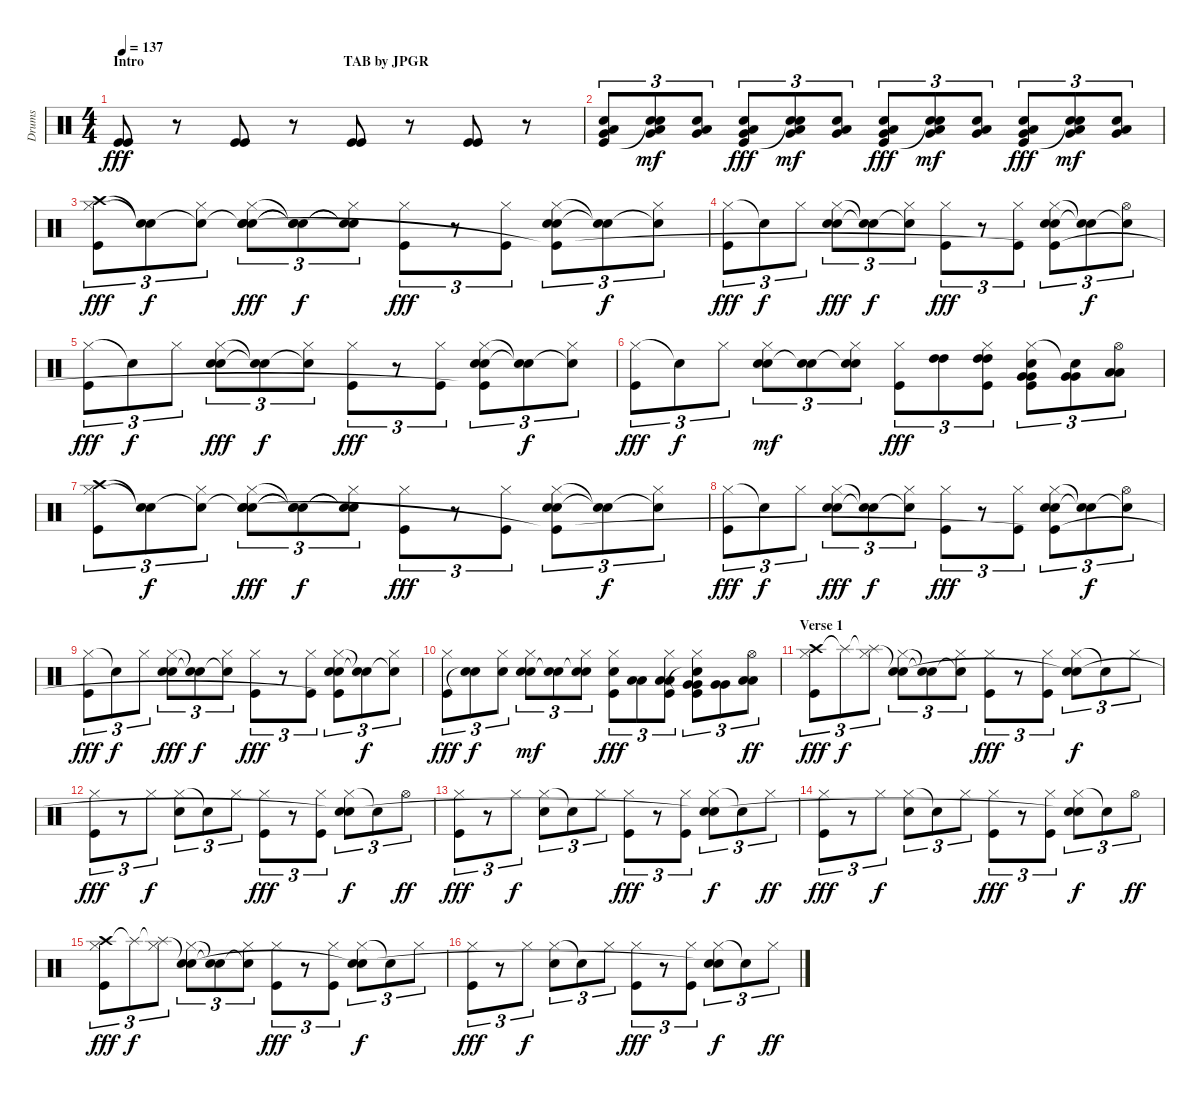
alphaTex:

\track ("Drums" "Drums") {instrument percussion}
\staff {score}
\articulation defaults
\ts (4 4)
\section ("" "Intro                                                         TAB by JPGR        ")
\tempo 137
\clef neutral
\ks c
("Kick (hit)" "Kick (hit)").8{dy fff} r.8 ("Kick (hit)" "Kick (hit)").8 r.8 ("Kick (hit)" "Kick (hit)").8 r.8 ("Kick (hit)" "Kick (hit)").8 r.8 |
("Very Low Tom (hit)" "Low Floor Tom (hit)" "Electric Snare (hit)" "Kick (hit)").8{tu (3 2)} ("Very Low Tom (hit)" "Low Floor Tom (hit)" "Electric Snare (hit)" "Snare (hit)"{t}).8{tu (3 2) dy mf} ("Very Low Tom (hit)" "Low Floor Tom (hit)" "Electric Snare (hit)").8{tu (3 2)} ("Very Low Tom (hit)" "Low Floor Tom (hit)" "Electric Snare (hit)" "Kick (hit)").8{tu (3 2) dy fff} ("Very Low Tom (hit)" "Low Floor Tom (hit)" "Electric Snare (hit)" "Snare (hit)"{t}).8{tu (3 2) dy mf} ("Very Low Tom (hit)" "Low Floor Tom (hit)" "Electric Snare (hit)").8{tu (3 2)} ("Very Low Tom (hit)" "Low Floor Tom (hit)" "Electric Snare (hit)" "Kick (hit)").8{tu (3 2) dy fff} ("Very Low Tom (hit)" "Low Floor Tom (hit)" "Electric Snare (hit)" "Snare (hit)"{t}).8{tu (3 2) dy mf} ("Very Low Tom (hit)" "Low Floor Tom (hit)" "Electric Snare (hit)").8{tu (3 2)} ("Very Low Tom (hit)" "Low Floor Tom (hit)" "Electric Snare (hit)" "Kick (hit)").8{tu (3 2) dy fff} ("Very Low Tom (hit)" "Low Floor Tom (hit)" "Electric Snare (hit)" "Snare (hit)"{t}).8{tu (3 2) dy mf} ("Very Low Tom (hit)" "Low Floor Tom (hit)" "Electric Snare (hit)").8{tu (3 2)} |
("Crash high (hit)" "Hi-Hat (closed)" "Kick (hit)").8{tu (3 2) dy fff} ("Snare (hit)"{t} "Snare (hit)"{t}).8{tu (3 2) dy f} ("Snare (hit)"{t} "Hi-Hat (closed)").8{tu (3 2)} ("Snare (hit)"{t} "Hand Clap (hit)" "Hi-Hat (closed)" "Electric Snare (hit)").8{tu (3 2) dy fff} ("Snare (hit)"{t} "Snare (hit)"{t} "Snare (hit)"{t}).8{tu (3 2) dy f} ("Snare (hit)"{t} "Snare (hit)"{t} "Hi-Hat (closed)").8{tu (3 2)} ("Hi-Hat (closed)" "Kick (hit)").8{tu (3 2) dy fff} r.8{tu (3 2)} ("Hi-Hat (closed)" "Kick (hit)").8{tu (3 2)} ("Hand Clap (hit)" "Hi-Hat (closed)" "Electric Snare (hit)" "Kick (hit)"{t}).8{tu (3 2)} ("Snare (hit)"{t} "Snare (hit)"{t}).8{tu (3 2) dy f} ("Snare (hit)"{t} "Hi-Hat (closed)").8{tu (3 2)} |
("Hi-Hat (closed)" "Kick (hit)").8{tu (3 2) dy fff} "Snare (hit)"{t}.8{tu (3 2) dy f} "Hi-Hat (closed)".8{tu (3 2)} ("Hand Clap (hit)" "Hi-Hat (closed)" "Electric Snare (hit)").8{tu (3 2) dy fff} ("Snare (hit)"{t} "Snare (hit)"{t}).8{tu (3 2) dy f} ("Snare (hit)"{t} "Hi-Hat (closed)").8{tu (3 2)} ("Hi-Hat (closed)" "Kick (hit)").8{tu (3 2) dy fff} r.8{tu (3 2)} ("Hi-Hat (closed)" "Kick (hit)").8{tu (3 2)} ("Hand Clap (hit)" "Hi-Hat (closed)" "Electric Snare (hit)" "Kick (hit)"{t}).8{tu (3 2)} ("Snare (hit)"{t} "Snare (hit)"{t}).8{tu (3 2) dy f} ("Snare (hit)"{t} "Hi-Hat (open)").8{tu (3 2)} |
("Hi-Hat (closed)" "Kick (hit)").8{tu (3 2) dy fff} "Snare (hit)"{t}.8{tu (3 2) dy f} "Hi-Hat (closed)".8{tu (3 2)} ("Hand Clap (hit)" "Hi-Hat (closed)" "Electric Snare (hit)").8{tu (3 2) dy fff} ("Snare (hit)"{t} "Snare (hit)"{t}).8{tu (3 2) dy f} ("Snare (hit)"{t} "Hi-Hat (closed)").8{tu (3 2)} ("Hi-Hat (closed)" "Kick (hit)").8{tu (3 2) dy fff} r.8{tu (3 2)} ("Hi-Hat (closed)" "Kick (hit)").8{tu (3 2)} ("Hand Clap (hit)" "Hi-Hat (closed)" "Electric Snare (hit)" "Kick (hit)"{t}).8{tu (3 2)} ("Snare (hit)"{t} "Snare (hit)"{t}).8{tu (3 2) dy f} ("Snare (hit)"{t} "Hi-Hat (closed)").8{tu (3 2)} |
("Hi-Hat (closed)" "Kick (hit)").8{tu (3 2) dy fff} "Snare (hit)"{t}.8{tu (3 2) dy f} "Hi-Hat (closed)".8{tu (3 2)} ("Hand Clap (hit)" "Hi-Hat (closed)" "Electric Snare (hit)").8{tu (3 2) dy mf} ("Snare (hit)"{t} "Electric Snare (hit)").8{tu (3 2)} ("Snare (hit)"{t} "Hi-Hat (closed)" "Electric Snare (hit)").8{tu (3 2)} ("Hi-Hat (closed)" "Kick (hit)").8{tu (3 2) dy fff} ("High Tom (hit)" "High Tom (hit)").8{tu (3 2)} ("High Tom (hit)" "High Tom (hit)" "Hi-Hat (closed)" "Kick (hit)").8{tu (3 2)} ("Very Low Tom (hit)" "Very Low Tom (hit)" "Hi-Hat (closed)" "Electric Snare (hit)" "Kick (hit)").8{tu (3 2)} ("Very Low Tom (hit)" "Very Low Tom (hit)" "Snare (hit)"{t}).8{tu (3 2)} ("Low Floor Tom (hit)" "Low Floor Tom (hit)" "Hi-Hat (open)").8{tu (3 2)} |
("Crash high (hit)" "Hi-Hat (closed)" "Kick (hit)").8{tu (3 2)} ("Snare (hit)"{t} "Snare (hit)"{t}).8{tu (3 2) dy f} ("Snare (hit)"{t} "Hi-Hat (closed)").8{tu (3 2)} ("Snare (hit)"{t} "Hand Clap (hit)" "Hi-Hat (closed)" "Electric Snare (hit)").8{tu (3 2) dy fff} ("Snare (hit)"{t} "Snare (hit)"{t} "Snare (hit)"{t}).8{tu (3 2) dy f} ("Snare (hit)"{t} "Snare (hit)"{t} "Hi-Hat (closed)").8{tu (3 2)} ("Hi-Hat (closed)" "Kick (hit)").8{tu (3 2) dy fff} r.8{tu (3 2)} ("Hi-Hat (closed)" "Kick (hit)").8{tu (3 2)} ("Hand Clap (hit)" "Hi-Hat (closed)" "Electric Snare (hit)" "Kick (hit)"{t}).8{tu (3 2)} ("Snare (hit)"{t} "Snare (hit)"{t}).8{tu (3 2) dy f} ("Snare (hit)"{t} "Hi-Hat (closed)").8{tu (3 2)} |
("Hi-Hat (closed)" "Kick (hit)").8{tu (3 2) dy fff} "Snare (hit)"{t}.8{tu (3 2) dy f} "Hi-Hat (closed)".8{tu (3 2)} ("Hand Clap (hit)" "Hi-Hat (closed)" "Electric Snare (hit)").8{tu (3 2) dy fff} ("Snare (hit)"{t} "Snare (hit)"{t}).8{tu (3 2) dy f} ("Snare (hit)"{t} "Hi-Hat (closed)").8{tu (3 2)} ("Hi-Hat (closed)" "Kick (hit)").8{tu (3 2) dy fff} r.8{tu (3 2)} ("Hi-Hat (closed)" "Kick (hit)").8{tu (3 2)} ("Hand Clap (hit)" "Hi-Hat (closed)" "Electric Snare (hit)" "Kick (hit)"{t}).8{tu (3 2)} ("Snare (hit)"{t} "Snare (hit)"{t}).8{tu (3 2) dy f} ("Snare (hit)"{t} "Hi-Hat (open)").8{tu (3 2)} |
("Hi-Hat (closed)" "Kick (hit)").8{tu (3 2) dy fff} "Snare (hit)"{t}.8{tu (3 2) dy f} "Hi-Hat (closed)".8{tu (3 2)} ("Hand Clap (hit)" "Hi-Hat (closed)" "Electric Snare (hit)").8{tu (3 2) dy fff} ("Snare (hit)"{t} "Snare (hit)"{t}).8{tu (3 2) dy f} ("Snare (hit)"{t} "Hi-Hat (closed)").8{tu (3 2)} ("Hi-Hat (closed)" "Kick (hit)").8{tu (3 2) dy fff} r.8{tu (3 2)} ("Hi-Hat (closed)" "Kick (hit)").8{tu (3 2)} ("Hand Clap (hit)" "Hi-Hat (closed)" "Electric Snare (hit)" "Kick (hit)"{t}).8{tu (3 2)} ("Snare (hit)"{t} "Snare (hit)"{t}).8{tu (3 2) dy f} ("Snare (hit)"{t} "Hi-Hat (closed)").8{tu (3 2)} |
("Hi-Hat (closed)" "Kick (hit)").8{tu (3 2) dy fff} ("Electric Snare (hit)" "Snare (hit)"{t}).8{tu (3 2) dy f} ("Hi-Hat (closed)" "Electric Snare (hit)").8{tu (3 2)} ("Hand Clap (hit)" "Hi-Hat (closed)" "Electric Snare (hit)").8{tu (3 2) dy mf} ("Snare (hit)"{t} "Electric Snare (hit)").8{tu (3 2)} ("Snare (hit)"{t} "Hi-Hat (closed)" "Electric Snare (hit)").8{tu (3 2)} ("Hi-Hat (closed)" "Electric Snare (hit)" "Kick (hit)").8{tu (3 2) dy fff} ("Low Tom (hit)" "Low Tom (hit)").8{tu (3 2)} ("Low Tom (hit)" "Hi-Hat (closed)" "Low Tom (hit)" "Kick (hit)").8{tu (3 2)} ("Very Low Tom (hit)" "Very Low Tom (hit)" "Hi-Hat (closed)" "Electric Snare (hit)"{t} "Kick (hit)").8{tu (3 2)} ("Very Low Tom (hit)" "Very Low Tom (hit)").8{tu (3 2)} ("Low Floor Tom (hit)" "Low Floor Tom (hit)" "Hi-Hat (open)").8{tu (3 2) dy ff} |
\section ("" "Verse 1")
("Crash high (hit)" "Hi-Hat (closed)" "Kick (hit)").8{tu (3 2) dy fff} "Splash (hit)"{t}.8{tu (3 2) dy f} ("Splash (hit)"{t} "Hi-Hat (closed)").8{tu (3 2)} ("Snare (hit)"{t} "Hi-Hat (closed)" "Electric Snare (hit)").8{tu (3 2)} ("Snare (hit)"{t} "Electric Snare (hit)"{t}).8{tu (3 2)} ("Snare (hit)"{t} "Hi-Hat (closed)").8{tu (3 2)} ("Hi-Hat (closed)" "Kick (hit)").8{tu (3 2) dy fff} r.8{tu (3 2)} ("Hi-Hat (closed)" "Kick (hit)").8{tu (3 2)} ("Hi-Hat (closed)" "Electric Snare (hit)" "Snare (hit)"{t}).8{tu (3 2) dy f} "Snare (hit)"{t}.8{tu (3 2)} "Hi-Hat (closed)".8{tu (3 2)} |
("Hi-Hat (closed)" "Kick (hit)").8{tu (3 2) dy fff} r.8{tu (3 2)} "Hi-Hat (closed)".8{tu (3 2) dy f} ("Hi-Hat (closed)" "Electric Snare (hit)").8{tu (3 2)} "Electric Snare (hit)"{t}.8{tu (3 2)} "Hi-Hat (closed)".8{tu (3 2)} ("Hi-Hat (closed)" "Kick (hit)").8{tu (3 2) dy fff} r.8{tu (3 2)} ("Hi-Hat (closed)" "Kick (hit)").8{tu (3 2)} ("Hi-Hat (closed)" "Electric Snare (hit)" "Snare (hit)"{t}).8{tu (3 2) dy f} "Snare (hit)"{t}.8{tu (3 2)} "Hi-Hat (open)".8{tu (3 2) dy ff} |
("Hi-Hat (closed)" "Kick (hit)").8{tu (3 2) dy fff} r.8{tu (3 2)} "Hi-Hat (closed)".8{tu (3 2) dy f} ("Hi-Hat (closed)" "Electric Snare (hit)").8{tu (3 2)} "Electric Snare (hit)"{t}.8{tu (3 2)} "Hi-Hat (closed)".8{tu (3 2)} ("Hi-Hat (closed)" "Kick (hit)").8{tu (3 2) dy fff} r.8{tu (3 2)} ("Hi-Hat (closed)" "Kick (hit)").8{tu (3 2)} ("Hi-Hat (closed)" "Electric Snare (hit)" "Snare (hit)"{t}).8{tu (3 2) dy f} "Snare (hit)"{t}.8{tu (3 2)} "Hi-Hat (closed)".8{tu (3 2) dy ff} |
("Hi-Hat (closed)" "Kick (hit)").8{tu (3 2) dy fff} r.8{tu (3 2)} "Hi-Hat (closed)".8{tu (3 2) dy f} ("Hi-Hat (closed)" "Electric Snare (hit)").8{tu (3 2)} "Electric Snare (hit)"{t}.8{tu (3 2)} "Hi-Hat (closed)".8{tu (3 2)} ("Hi-Hat (closed)" "Kick (hit)").8{tu (3 2) dy fff} r.8{tu (3 2)} ("Hi-Hat (closed)" "Kick (hit)").8{tu (3 2)} ("Hi-Hat (closed)" "Electric Snare (hit)" "Snare (hit)"{t}).8{tu (3 2) dy f} "Snare (hit)"{t}.8{tu (3 2)} "Hi-Hat (open)".8{tu (3 2) dy ff} |
("Crash high (hit)" "Hi-Hat (closed)" "Kick (hit)").8{tu (3 2) dy fff} "Splash (hit)"{t}.8{tu (3 2) dy f} ("Splash (hit)"{t} "Hi-Hat (closed)").8{tu (3 2)} ("Snare (hit)"{t} "Hi-Hat (closed)" "Electric Snare (hit)").8{tu (3 2)} ("Snare (hit)"{t} "Electric Snare (hit)"{t}).8{tu (3 2)} ("Snare (hit)"{t} "Hi-Hat (closed)").8{tu (3 2)} ("Hi-Hat (closed)" "Kick (hit)").8{tu (3 2) dy fff} r.8{tu (3 2)} ("Hi-Hat (closed)" "Kick (hit)").8{tu (3 2)} ("Hi-Hat (closed)" "Electric Snare (hit)" "Snare (hit)"{t}).8{tu (3 2) dy f} "Snare (hit)"{t}.8{tu (3 2)} "Hi-Hat (closed)".8{tu (3 2)} |
("Hi-Hat (closed)" "Kick (hit)").8{tu (3 2) dy fff} r.8{tu (3 2)} "Hi-Hat (closed)".8{tu (3 2) dy f} ("Hi-Hat (closed)" "Electric Snare (hit)").8{tu (3 2)} "Electric Snare (hit)"{t}.8{tu (3 2)} "Hi-Hat (closed)".8{tu (3 2)} ("Hi-Hat (closed)" "Kick (hit)").8{tu (3 2) dy fff} r.8{tu (3 2)} ("Hi-Hat (closed)" "Kick (hit)").8{tu (3 2)} ("Hi-Hat (closed)" "Electric Snare (hit)" "Snare (hit)"{t}).8{tu (3 2) dy f} "Snare (hit)"{t}.8{tu (3 2)} "Hi-Hat (closed)".8{tu (3 2) dy ff}
